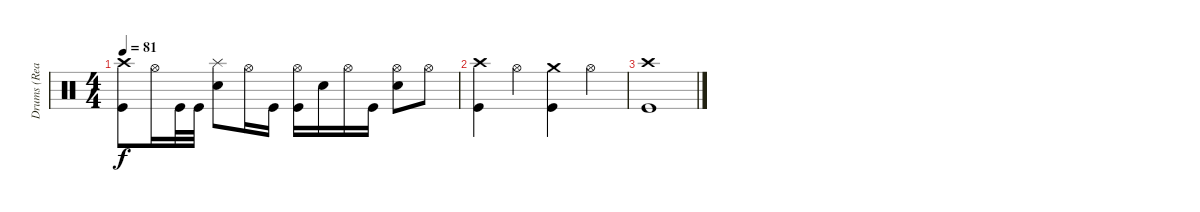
\track ("Drums (Real)" "Drums (Rea") {instrument percussion}
\staff {score}
\articulation defaults
\ts (4 4)
\tempo 81
\clef neutral
\ks c
("Crash high (hit)" "Kick (hit)").8{dy f} "Hi-Hat (open)".16 "Kick (hit)".32 "Kick (hit)".32 ("Splash (hit)" "Snare (hit) 2").8 "Hi-Hat (open)".16 "Kick (hit)".16 ("Hi-Hat (open)" "Kick (hit)").16 "Snare (hit) 2".16 "Hi-Hat (open)".16 "Kick (hit)".16 ("Hi-Hat (open)" "Snare (hit) 2").8 "Hi-Hat (open)".8 |
("Crash high (hit)" "Kick (hit)").4 "Hi-Hat (open)".4 ("Crash medium (hit)" "Kick (hit)").4 "Hi-Hat (open)".4 |
("Crash high (hit)" "Kick (hit)").1
